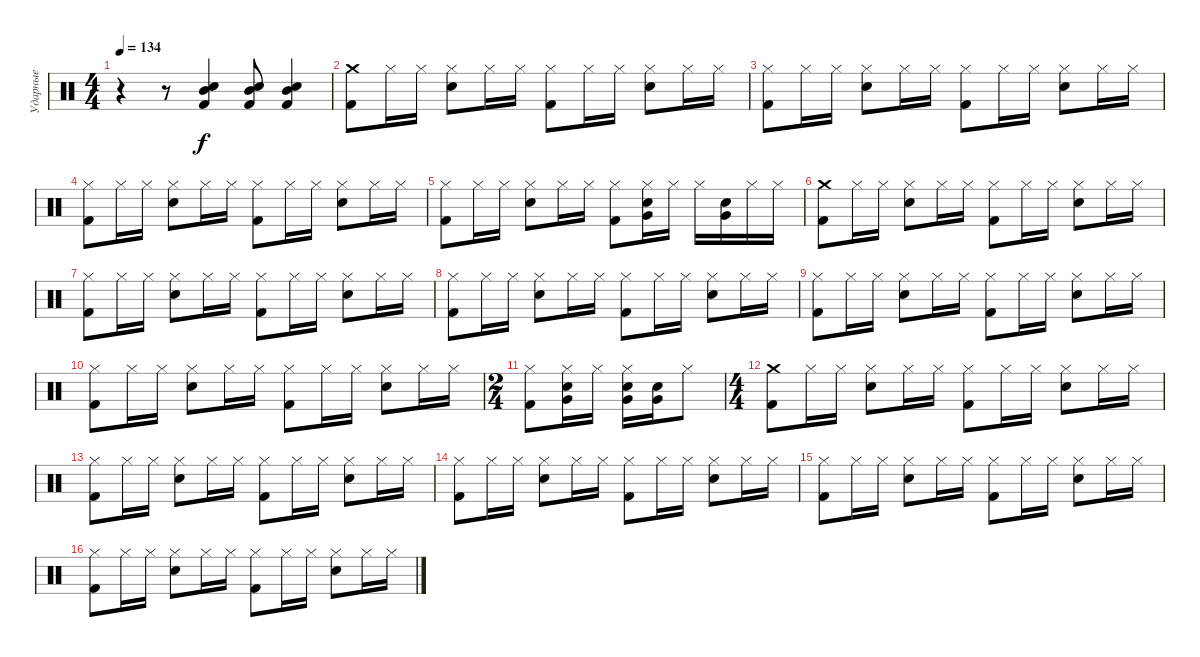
\track ("Ударные" "Ударные") {instrument percussion}
\staff {score}
\articulation defaults
\ts (4 4)
\tempo 134
\clef neutral
\ks c
r.4{dy f} r.8 ("Mid Tom (hit)" "Snare (hit) 2" "Kick (hit) 2").4 ("Mid Tom (hit)" "Snare (hit) 2" "Kick (hit) 2").8 ("Mid Tom (hit)" "Snare (hit) 2" "Kick (hit) 2").4 |
("Crash medium (hit)" "Kick (hit) 2").8 "Hi-Hat (closed)".16 "Hi-Hat (closed)".16 ("Hi-Hat (closed)" "Snare (hit) 2").8 "Hi-Hat (closed)".16 "Hi-Hat (closed)".16 ("Hi-Hat (closed)" "Kick (hit) 2").8 "Hi-Hat (closed)".16 "Hi-Hat (closed)".16 ("Hi-Hat (closed)" "Snare (hit) 2").8 "Hi-Hat (closed)".16 "Hi-Hat (closed)".16 |
("Hi-Hat (closed)" "Kick (hit) 2").8 "Hi-Hat (closed)".16 "Hi-Hat (closed)".16 ("Hi-Hat (closed)" "Snare (hit) 2").8 "Hi-Hat (closed)".16 "Hi-Hat (closed)".16 ("Hi-Hat (closed)" "Kick (hit) 2").8 "Hi-Hat (closed)".16 "Hi-Hat (closed)".16 ("Hi-Hat (closed)" "Snare (hit) 2").8 "Hi-Hat (closed)".16 "Hi-Hat (closed)".16 |
("Hi-Hat (closed)" "Kick (hit) 2").8 "Hi-Hat (closed)".16 "Hi-Hat (closed)".16 ("Hi-Hat (closed)" "Snare (hit) 2").8 "Hi-Hat (closed)".16 "Hi-Hat (closed)".16 ("Hi-Hat (closed)" "Kick (hit) 2").8 "Hi-Hat (closed)".16 "Hi-Hat (closed)".16 ("Hi-Hat (closed)" "Snare (hit) 2").8 "Hi-Hat (closed)".16 "Hi-Hat (closed)".16 |
("Hi-Hat (closed)" "Kick (hit) 2").8 "Hi-Hat (closed)".16 "Hi-Hat (closed)".16 ("Hi-Hat (closed)" "Snare (hit) 2").8 "Hi-Hat (closed)".16 "Hi-Hat (closed)".16 ("Hi-Hat (closed)" "Kick (hit) 2").8 ("Hi-Hat (closed)" "Snare (hit) 2" "Very Low Tom (hit)").16 "Hi-Hat (closed)".16 "Hi-Hat (closed)".16 ("Snare (hit) 2" "Very Low Tom (hit)").16 "Hi-Hat (closed)".16 "Hi-Hat (closed)".16 |
("Crash medium (hit)" "Kick (hit) 2").8 "Hi-Hat (closed)".16 "Hi-Hat (closed)".16 ("Hi-Hat (closed)" "Snare (hit) 2").8 "Hi-Hat (closed)".16 "Hi-Hat (closed)".16 ("Hi-Hat (closed)" "Kick (hit) 2").8 "Hi-Hat (closed)".16 "Hi-Hat (closed)".16 ("Hi-Hat (closed)" "Snare (hit) 2").8 "Hi-Hat (closed)".16 "Hi-Hat (closed)".16 |
("Hi-Hat (closed)" "Kick (hit) 2").8 "Hi-Hat (closed)".16 "Hi-Hat (closed)".16 ("Hi-Hat (closed)" "Snare (hit) 2").8 "Hi-Hat (closed)".16 "Hi-Hat (closed)".16 ("Hi-Hat (closed)" "Kick (hit) 2").8 "Hi-Hat (closed)".16 "Hi-Hat (closed)".16 ("Hi-Hat (closed)" "Snare (hit) 2").8 "Hi-Hat (closed)".16 "Hi-Hat (closed)".16 |
("Hi-Hat (closed)" "Kick (hit) 2").8 "Hi-Hat (closed)".16 "Hi-Hat (closed)".16 ("Hi-Hat (closed)" "Snare (hit) 2").8 "Hi-Hat (closed)".16 "Hi-Hat (closed)".16 ("Hi-Hat (closed)" "Kick (hit) 2").8 "Hi-Hat (closed)".16 "Hi-Hat (closed)".16 ("Hi-Hat (closed)" "Snare (hit) 2").8 "Hi-Hat (closed)".16 "Hi-Hat (closed)".16 |
("Hi-Hat (closed)" "Kick (hit) 2").8 "Hi-Hat (closed)".16 "Hi-Hat (closed)".16 ("Hi-Hat (closed)" "Snare (hit) 2").8 "Hi-Hat (closed)".16 "Hi-Hat (closed)".16 ("Hi-Hat (closed)" "Kick (hit) 2").8 "Hi-Hat (closed)".16 "Hi-Hat (closed)".16 ("Hi-Hat (closed)" "Snare (hit) 2").8 "Hi-Hat (closed)".16 "Hi-Hat (closed)".16 |
("Hi-Hat (closed)" "Kick (hit) 2").8 "Hi-Hat (closed)".16 "Hi-Hat (closed)".16 ("Hi-Hat (closed)" "Snare (hit) 2").8 "Hi-Hat (closed)".16 "Hi-Hat (closed)".16 ("Hi-Hat (closed)" "Kick (hit) 2").8 "Hi-Hat (closed)".16 "Hi-Hat (closed)".16 ("Hi-Hat (closed)" "Snare (hit) 2").8 "Hi-Hat (closed)".16 "Hi-Hat (closed)".16 |
\ts (2 4)
("Hi-Hat (closed)" "Kick (hit) 2").8 ("Hi-Hat (closed)" "Snare (hit) 2" "Very Low Tom (hit)").16 "Hi-Hat (closed)".16 ("Hi-Hat (closed)" "Snare (hit) 2" "Very Low Tom (hit)").16 ("Snare (hit) 2" "Very Low Tom (hit)").16 "Hi-Hat (closed)".8 |
\ts (4 4)
("Crash medium (hit)" "Kick (hit) 2").8 "Hi-Hat (closed)".16 "Hi-Hat (closed)".16 ("Hi-Hat (closed)" "Snare (hit) 2").8 "Hi-Hat (closed)".16 "Hi-Hat (closed)".16 ("Hi-Hat (closed)" "Kick (hit) 2").8 "Hi-Hat (closed)".16 "Hi-Hat (closed)".16 ("Hi-Hat (closed)" "Snare (hit) 2").8 "Hi-Hat (closed)".16 "Hi-Hat (closed)".16 |
("Hi-Hat (closed)" "Kick (hit) 2").8 "Hi-Hat (closed)".16 "Hi-Hat (closed)".16 ("Hi-Hat (closed)" "Snare (hit) 2").8 "Hi-Hat (closed)".16 "Hi-Hat (closed)".16 ("Hi-Hat (closed)" "Kick (hit) 2").8 "Hi-Hat (closed)".16 "Hi-Hat (closed)".16 ("Hi-Hat (closed)" "Snare (hit) 2").8 "Hi-Hat (closed)".16 "Hi-Hat (closed)".16 |
("Hi-Hat (closed)" "Kick (hit) 2").8 "Hi-Hat (closed)".16 "Hi-Hat (closed)".16 ("Hi-Hat (closed)" "Snare (hit) 2").8 "Hi-Hat (closed)".16 "Hi-Hat (closed)".16 ("Hi-Hat (closed)" "Kick (hit) 2").8 "Hi-Hat (closed)".16 "Hi-Hat (closed)".16 ("Hi-Hat (closed)" "Snare (hit) 2").8 "Hi-Hat (closed)".16 "Hi-Hat (closed)".16 |
("Hi-Hat (closed)" "Kick (hit) 2").8 "Hi-Hat (closed)".16 "Hi-Hat (closed)".16 ("Hi-Hat (closed)" "Snare (hit) 2").8 "Hi-Hat (closed)".16 "Hi-Hat (closed)".16 ("Hi-Hat (closed)" "Kick (hit) 2").8 "Hi-Hat (closed)".16 "Hi-Hat (closed)".16 ("Hi-Hat (closed)" "Snare (hit) 2").8 "Hi-Hat (closed)".16 "Hi-Hat (closed)".16 |
("Hi-Hat (closed)" "Kick (hit) 2").8 "Hi-Hat (closed)".16 "Hi-Hat (closed)".16 ("Hi-Hat (closed)" "Snare (hit) 2").8 "Hi-Hat (closed)".16 "Hi-Hat (closed)".16 ("Hi-Hat (closed)" "Kick (hit) 2").8 "Hi-Hat (closed)".16 "Hi-Hat (closed)".16 ("Hi-Hat (closed)" "Snare (hit) 2").8 "Hi-Hat (closed)".16 "Hi-Hat (closed)".16
